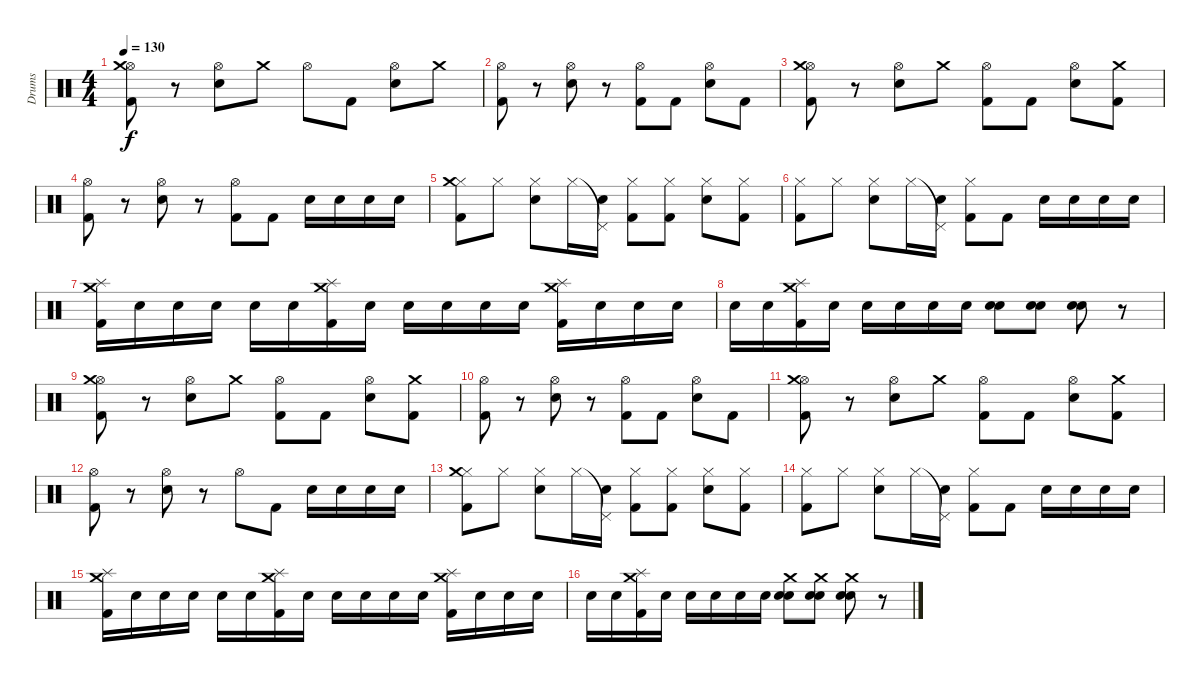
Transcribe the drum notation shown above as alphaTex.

\track ("Drums" "Drums") {instrument percussion}
\staff {score}
\articulation defaults
\ts (4 4)
\tempo 130
\clef neutral
\ks c
("Hi-Hat (open)" "Kick (hit) 2" "Crash medium (hit)").8{dy f} r.8 ("Hi-Hat (open)" "Electric Snare (hit)").8 "Crash medium (hit)".8 "Hi-Hat (open)".8 "Kick (hit) 2".8 ("Hi-Hat (open)" "Electric Snare (hit)").8 "Crash medium (hit)".8 |
("Hi-Hat (open)" "Kick (hit) 2").8 r.8 ("Hi-Hat (open)" "Electric Snare (hit)").8 r.8 ("Hi-Hat (open)" "Kick (hit) 2").8 "Kick (hit) 2".8 ("Hi-Hat (open)" "Electric Snare (hit)").8 "Kick (hit) 2".8 |
("Hi-Hat (open)" "Kick (hit) 2" "Crash medium (hit)").8 r.8 ("Hi-Hat (open)" "Electric Snare (hit)").8 "Crash medium (hit)".8 ("Hi-Hat (open)" "Kick (hit) 2").8 "Kick (hit) 2".8 ("Hi-Hat (open)" "Electric Snare (hit)").8 ("Kick (hit) 2" "Crash medium (hit)").8 |
("Hi-Hat (open)" "Kick (hit) 2").8 r.8 ("Hi-Hat (open)" "Electric Snare (hit)").8 r.8 ("Hi-Hat (open)" "Kick (hit) 2").8 "Kick (hit) 2".8 "Electric Snare (hit)".16 "Electric Snare (hit)".16 "Electric Snare (hit)".16 "Electric Snare (hit)".16 |
("Hi-Hat (closed)" "Kick (hit) 2" "Crash medium (hit)").8 "Hi-Hat (closed)".8 ("Hi-Hat (closed)" "Electric Snare (hit)").8 "Hi-Hat (closed)".16 ("Pedal Hi-Hat (hit)"{t} "Electric Snare (hit)").16 ("Hi-Hat (closed)" "Kick (hit) 2").8 ("Hi-Hat (closed)" "Kick (hit) 2").8 ("Hi-Hat (closed)" "Electric Snare (hit)").8 ("Hi-Hat (closed)" "Kick (hit) 2").8 |
("Hi-Hat (closed)" "Kick (hit) 2").8 "Hi-Hat (closed)".8 ("Hi-Hat (closed)" "Electric Snare (hit)").8 "Hi-Hat (closed)".16 ("Pedal Hi-Hat (hit)"{t} "Electric Snare (hit)").16 ("Hi-Hat (closed)" "Kick (hit) 2").8 "Kick (hit) 2".8 "Electric Snare (hit)".16 "Electric Snare (hit)".16 "Electric Snare (hit)".16 "Electric Snare (hit)".16 |
("Crash medium (hit)" "Splash (hit)" "Kick (hit) 2").16 "Electric Snare (hit)".16 "Electric Snare (hit)".16 "Electric Snare (hit)".16 "Electric Snare (hit)".16 "Electric Snare (hit)".16 ("Crash medium (hit)" "Splash (hit)" "Kick (hit) 2").16 "Electric Snare (hit)".16 "Electric Snare (hit)".16 "Electric Snare (hit)".16 "Electric Snare (hit)".16 "Electric Snare (hit)".16 ("Crash medium (hit)" "Splash (hit)" "Kick (hit) 2").16 "Electric Snare (hit)".16 "Electric Snare (hit)".16 "Electric Snare (hit)".16 |
"Electric Snare (hit)".16 "Electric Snare (hit)".16 ("Crash medium (hit)" "Splash (hit)" "Kick (hit) 2").16 "Electric Snare (hit)".16 "Electric Snare (hit)".16 "Electric Snare (hit)".16 "Electric Snare (hit)".16 "Electric Snare (hit)".16 ("Electric Snare (hit)" "Electric Snare (hit)").8 ("Electric Snare (hit)" "Electric Snare (hit)").8 ("Electric Snare (hit)" "Electric Snare (hit)").8 r.8 |
("Hi-Hat (open)" "Kick (hit) 2" "Crash medium (hit)").8 r.8 ("Hi-Hat (open)" "Electric Snare (hit)").8 "Crash medium (hit)".8 ("Hi-Hat (open)" "Kick (hit) 2").8 "Kick (hit) 2".8 ("Hi-Hat (open)" "Electric Snare (hit)").8 ("Kick (hit) 2" "Crash medium (hit)").8 |
("Hi-Hat (open)" "Kick (hit) 2").8 r.8 ("Hi-Hat (open)" "Electric Snare (hit)").8 r.8 ("Hi-Hat (open)" "Kick (hit) 2").8 "Kick (hit) 2".8 ("Hi-Hat (open)" "Electric Snare (hit)").8 "Kick (hit) 2".8 |
("Hi-Hat (open)" "Kick (hit) 2" "Crash medium (hit)").8 r.8 ("Hi-Hat (open)" "Electric Snare (hit)").8 "Crash medium (hit)".8 ("Hi-Hat (open)" "Kick (hit) 2").8 "Kick (hit) 2".8 ("Hi-Hat (open)" "Electric Snare (hit)").8 ("Kick (hit) 2" "Crash medium (hit)").8 |
("Hi-Hat (open)" "Kick (hit) 2").8 r.8 ("Hi-Hat (open)" "Electric Snare (hit)").8 r.8 "Hi-Hat (open)".8 "Kick (hit) 2".8 "Electric Snare (hit)".16 "Electric Snare (hit)".16 "Electric Snare (hit)".16 "Electric Snare (hit)".16 |
("Hi-Hat (closed)" "Kick (hit) 2" "Crash medium (hit)").8 "Hi-Hat (closed)".8 ("Hi-Hat (closed)" "Electric Snare (hit)").8 "Hi-Hat (closed)".16 ("Pedal Hi-Hat (hit)"{t} "Electric Snare (hit)").16 ("Hi-Hat (closed)" "Kick (hit) 2").8 ("Hi-Hat (closed)" "Kick (hit) 2").8 ("Hi-Hat (closed)" "Electric Snare (hit)").8 ("Hi-Hat (closed)" "Kick (hit) 2").8 |
("Hi-Hat (closed)" "Kick (hit) 2").8 "Hi-Hat (closed)".8 ("Hi-Hat (closed)" "Electric Snare (hit)").8 "Hi-Hat (closed)".16 ("Pedal Hi-Hat (hit)"{t} "Electric Snare (hit)").16 ("Hi-Hat (closed)" "Kick (hit) 2").8 "Kick (hit) 2".8 "Electric Snare (hit)".16 "Electric Snare (hit)".16 "Electric Snare (hit)".16 "Electric Snare (hit)".16 |
("Crash medium (hit)" "Splash (hit)" "Kick (hit) 2").16 "Electric Snare (hit)".16 "Electric Snare (hit)".16 "Electric Snare (hit)".16 "Electric Snare (hit)".16 "Electric Snare (hit)".16 ("Crash medium (hit)" "Splash (hit)" "Kick (hit) 2").16 "Electric Snare (hit)".16 "Electric Snare (hit)".16 "Electric Snare (hit)".16 "Electric Snare (hit)".16 "Electric Snare (hit)".16 ("Crash medium (hit)" "Splash (hit)" "Kick (hit) 2").16 "Electric Snare (hit)".16 "Electric Snare (hit)".16 "Electric Snare (hit)".16 |
"Electric Snare (hit)".16 "Electric Snare (hit)".16 ("Crash medium (hit)" "Splash (hit)" "Kick (hit) 2").16 "Electric Snare (hit)".16 "Electric Snare (hit)".16 "Electric Snare (hit)".16 "Electric Snare (hit)".16 "Electric Snare (hit)".16 ("Crash medium (hit)" "Electric Snare (hit)" "Electric Snare (hit)").8 ("Crash medium (hit)" "Electric Snare (hit)" "Electric Snare (hit)").8 ("Crash medium (hit)" "Electric Snare (hit)" "Electric Snare (hit)").8 r.8
